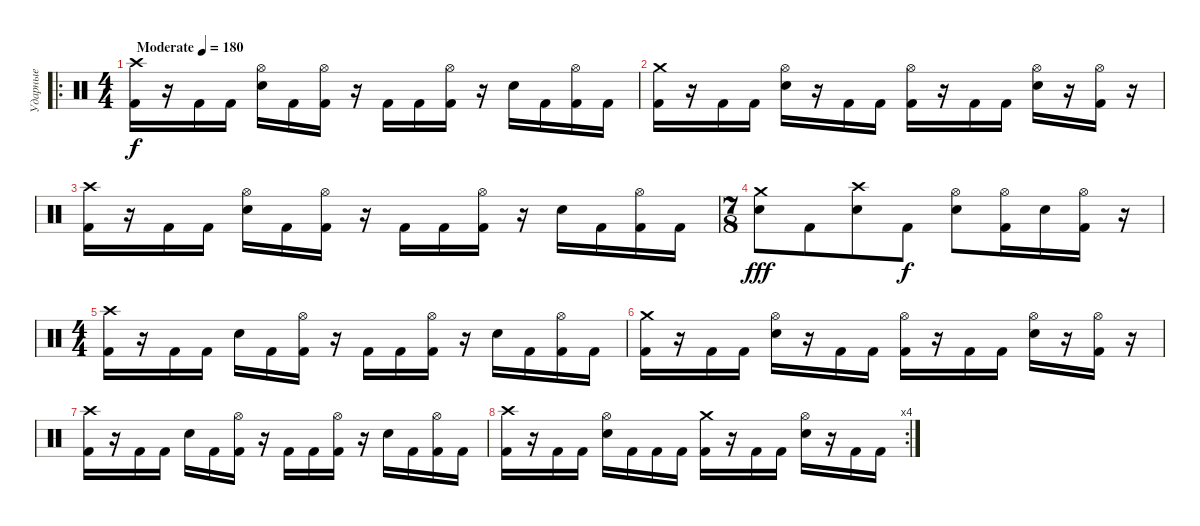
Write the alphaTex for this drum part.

\track ("Ударные" "Ударные") {instrument percussion}
\staff {score}
\articulation defaults
\ro
\ts (4 4)
\tempo (180 "Moderate")
\clef neutral
\ks c
("Crash high (hit)" "Kick (hit) 2").16{dy f} r.16 "Kick (hit) 2".16 "Kick (hit) 2".16 ("Hi-Hat (open)" "Electric Snare (hit)").16 "Kick (hit) 2".16 ("Hi-Hat (open)" "Kick (hit) 2").16 r.16 "Kick (hit) 2".16 "Kick (hit) 2".16 ("Hi-Hat (open)" "Kick (hit) 2").16 r.16 "Electric Snare (hit)".16 "Kick (hit) 2".16 ("Hi-Hat (open)" "Kick (hit) 2").16 "Kick (hit) 2".16 |
("Crash medium (hit)" "Kick (hit) 2").16 r.16 "Kick (hit) 2".16 "Kick (hit) 2".16 ("Hi-Hat (open)" "Electric Snare (hit)").16 r.16 "Kick (hit) 2".16 "Kick (hit) 2".16 ("Hi-Hat (open)" "Kick (hit) 2").16 r.16 "Kick (hit) 2".16 "Kick (hit) 2".16 ("Hi-Hat (open)" "Electric Snare (hit)").16 r.16 ("Hi-Hat (open)" "Kick (hit) 2").16 r.16 |
("Crash high (hit)" "Kick (hit) 2").16 r.16 "Kick (hit) 2".16 "Kick (hit) 2".16 ("Hi-Hat (open)" "Electric Snare (hit)").16 "Kick (hit) 2".16 ("Hi-Hat (open)" "Kick (hit) 2").16 r.16 "Kick (hit) 2".16 "Kick (hit) 2".16 ("Hi-Hat (open)" "Kick (hit) 2").16 r.16 "Electric Snare (hit)".16 "Kick (hit) 2".16 ("Hi-Hat (open)" "Kick (hit) 2").16 "Kick (hit) 2".16 |
\ts (7 8)
("Crash medium (hit)" "Electric Snare (hit)").8{dy fff} "Kick (hit) 2".8 ("Crash high (hit)" "Electric Snare (hit)").8 "Kick (hit) 2".8{dy f} ("Hi-Hat (open)" "Electric Snare (hit)").8 ("Hi-Hat (open)" "Kick (hit) 2").16 "Electric Snare (hit)".16 ("Hi-Hat (open)" "Kick (hit) 2").16 r.16 |
\ts (4 4)
("Crash high (hit)" "Kick (hit) 2").16 r.16 "Kick (hit) 2".16 "Kick (hit) 2".16 "Electric Snare (hit)".16 "Kick (hit) 2".16 ("Hi-Hat (open)" "Kick (hit) 2").16 r.16 "Kick (hit) 2".16 "Kick (hit) 2".16 ("Hi-Hat (open)" "Kick (hit) 2").16 r.16 "Electric Snare (hit)".16 "Kick (hit) 2".16 ("Hi-Hat (open)" "Kick (hit) 2").16 "Kick (hit) 2".16 |
("Crash medium (hit)" "Kick (hit) 2").16 r.16 "Kick (hit) 2".16 "Kick (hit) 2".16 ("Hi-Hat (open)" "Electric Snare (hit)").16 r.16 "Kick (hit) 2".16 "Kick (hit) 2".16 ("Hi-Hat (open)" "Kick (hit) 2").16 r.16 "Kick (hit) 2".16 "Kick (hit) 2".16 ("Hi-Hat (open)" "Electric Snare (hit)").16 r.16 ("Hi-Hat (open)" "Kick (hit) 2").16 r.16 |
("Crash high (hit)" "Kick (hit) 2").16 r.16 "Kick (hit) 2".16 "Kick (hit) 2".16 "Electric Snare (hit)".16 "Kick (hit) 2".16 ("Hi-Hat (open)" "Kick (hit) 2").16 r.16 "Kick (hit) 2".16 "Kick (hit) 2".16 ("Hi-Hat (open)" "Kick (hit) 2").16 r.16 "Electric Snare (hit)".16 "Kick (hit) 2".16 ("Hi-Hat (open)" "Kick (hit) 2").16 "Kick (hit) 2".16 |
\rc 4
("Crash high (hit)" "Kick (hit) 2").16 r.16 "Kick (hit) 2".16 "Kick (hit) 2".16 ("Hi-Hat (open)" "Electric Snare (hit)").16 "Kick (hit) 2".16 "Kick (hit) 2".16 "Kick (hit) 2".16 ("Crash medium (hit)" "Kick (hit) 2").16 r.16 "Kick (hit) 2".16 "Kick (hit) 2".16 ("Hi-Hat (open)" "Electric Snare (hit)").16 r.16 "Kick (hit) 2".16 "Kick (hit) 2".16
